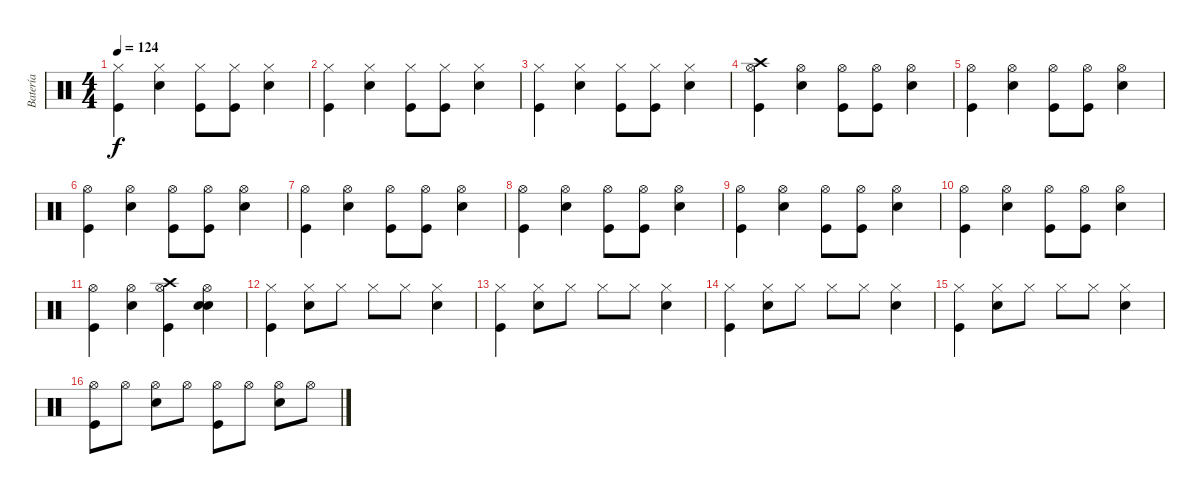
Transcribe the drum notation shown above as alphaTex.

\track ("Batería" "Batería") {instrument percussion}
\staff {score}
\articulation defaults
\ts (4 4)
\tempo 124
\clef neutral
\ks c
("Hi-Hat (closed)" "Kick (hit)").4{dy f} ("Hi-Hat (closed)" "Snare (hit) 2").4 ("Hi-Hat (closed)" "Kick (hit)").8 ("Hi-Hat (closed)" "Kick (hit)").8 ("Hi-Hat (closed)" "Snare (hit) 2").4 |
("Hi-Hat (closed)" "Kick (hit)").4 ("Hi-Hat (closed)" "Snare (hit) 2").4 ("Hi-Hat (closed)" "Kick (hit)").8 ("Hi-Hat (closed)" "Kick (hit)").8 ("Hi-Hat (closed)" "Snare (hit) 2").4 |
("Hi-Hat (closed)" "Kick (hit)").4 ("Hi-Hat (closed)" "Snare (hit) 2").4 ("Hi-Hat (closed)" "Kick (hit)").8 ("Hi-Hat (closed)" "Kick (hit)").8 ("Hi-Hat (closed)" "Snare (hit) 2").4 |
("Crash high (hit)" "Hi-Hat (open)" "Kick (hit)").4 ("Hi-Hat (open)" "Snare (hit) 2").4 ("Hi-Hat (open)" "Kick (hit)").8 ("Hi-Hat (open)" "Kick (hit)").8 ("Hi-Hat (open)" "Snare (hit) 2").4 |
("Hi-Hat (open)" "Kick (hit)").4 ("Hi-Hat (open)" "Snare (hit) 2").4 ("Hi-Hat (open)" "Kick (hit)").8 ("Hi-Hat (open)" "Kick (hit)").8 ("Hi-Hat (open)" "Snare (hit) 2").4 |
("Hi-Hat (open)" "Kick (hit)").4 ("Hi-Hat (open)" "Snare (hit) 2").4 ("Hi-Hat (open)" "Kick (hit)").8 ("Hi-Hat (open)" "Kick (hit)").8 ("Hi-Hat (open)" "Snare (hit) 2").4 |
("Hi-Hat (open)" "Kick (hit)").4 ("Hi-Hat (open)" "Snare (hit) 2").4 ("Hi-Hat (open)" "Kick (hit)").8 ("Hi-Hat (open)" "Kick (hit)").8 ("Hi-Hat (open)" "Snare (hit) 2").4 |
("Hi-Hat (open)" "Kick (hit)").4 ("Hi-Hat (open)" "Snare (hit) 2").4 ("Hi-Hat (open)" "Kick (hit)").8 ("Hi-Hat (open)" "Kick (hit)").8 ("Hi-Hat (open)" "Snare (hit) 2").4 |
("Hi-Hat (open)" "Kick (hit)").4 ("Hi-Hat (open)" "Snare (hit) 2").4 ("Hi-Hat (open)" "Kick (hit)").8 ("Hi-Hat (open)" "Kick (hit)").8 ("Hi-Hat (open)" "Snare (hit) 2").4 |
("Hi-Hat (open)" "Kick (hit)").4 ("Hi-Hat (open)" "Snare (hit) 2").4 ("Hi-Hat (open)" "Kick (hit)").8 ("Hi-Hat (open)" "Kick (hit)").8 ("Hi-Hat (open)" "Snare (hit) 2").4 |
("Hi-Hat (open)" "Kick (hit)").4 ("Hi-Hat (open)" "Snare (hit) 2").4 ("Crash high (hit)" "Hi-Hat (open)" "Kick (hit)").4 ("Hi-Hat (open)" "Snare (hit) 2" "Snare (hit) 2").4 |
("Hi-Hat (closed)" "Kick (hit)").4 ("Hi-Hat (closed)" "Snare (hit) 2").8 "Hi-Hat (closed)".8 "Hi-Hat (closed)".8 "Hi-Hat (closed)".8 ("Hi-Hat (closed)" "Snare (hit) 2").4 |
("Hi-Hat (closed)" "Kick (hit)").4 ("Hi-Hat (closed)" "Snare (hit) 2").8 "Hi-Hat (closed)".8 "Hi-Hat (closed)".8 "Hi-Hat (closed)".8 ("Hi-Hat (closed)" "Snare (hit) 2").4 |
("Hi-Hat (closed)" "Kick (hit)").4 ("Hi-Hat (closed)" "Snare (hit) 2").8 "Hi-Hat (closed)".8 "Hi-Hat (closed)".8 "Hi-Hat (closed)".8 ("Hi-Hat (closed)" "Snare (hit) 2").4 |
("Hi-Hat (closed)" "Kick (hit)").4 ("Hi-Hat (closed)" "Snare (hit) 2").8 "Hi-Hat (closed)".8 "Hi-Hat (closed)".8 "Hi-Hat (closed)".8 ("Hi-Hat (closed)" "Snare (hit) 2").4 |
("Hi-Hat (open)" "Kick (hit)").8 "Hi-Hat (open)".8 ("Hi-Hat (open)" "Snare (hit) 2").8 "Hi-Hat (open)".8 ("Hi-Hat (open)" "Kick (hit)").8 "Hi-Hat (open)".8 ("Hi-Hat (open)" "Snare (hit) 2").8 "Hi-Hat (open)".8
